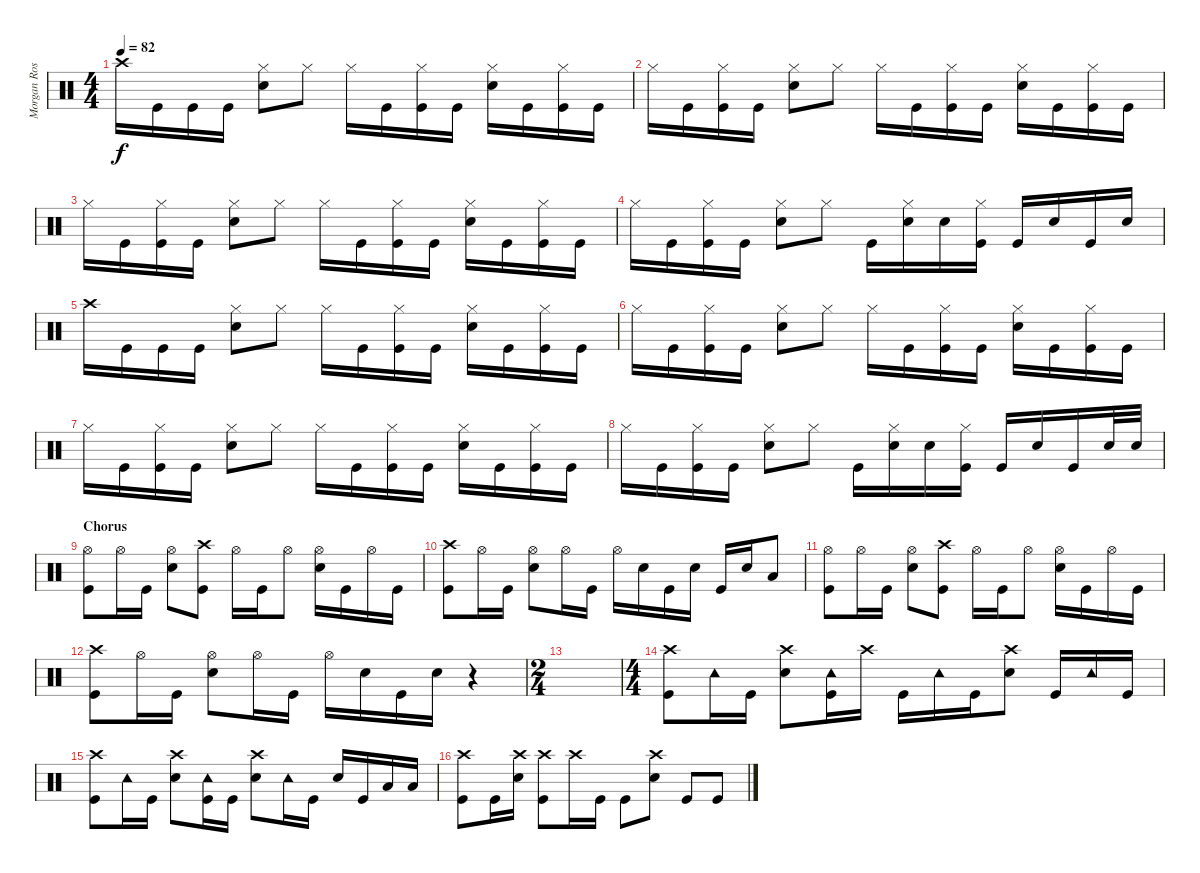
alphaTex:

\track ("Morgan Rose" "Morgan Ros") {instrument percussion}
\staff {score}
\articulation defaults
\ts (4 4)
\tempo 82
\clef neutral
\ks c "Crash high (hit)".16{dy f} "Kick (hit)".16 "Kick (hit)".16 "Kick (hit)".16
("Hi-Hat (closed)" "Snare (hit) 2").8 "Hi-Hat (closed)".8 "Hi-Hat (closed)".16 "Kick (hit)".16 ("Hi-Hat (closed)" "Kick (hit)").16 "Kick (hit)".16 ("Hi-Hat (closed)" "Snare (hit) 2").16 "Kick (hit)".16 ("Hi-Hat (closed)" "Kick (hit)").16 "Kick (hit)".16 |
"Hi-Hat (closed)".16 "Kick (hit)".16 ("Hi-Hat (closed)" "Kick (hit)").16 "Kick (hit)".16 ("Hi-Hat (closed)" "Snare (hit) 2").8 "Hi-Hat (closed)".8 "Hi-Hat (closed)".16 "Kick (hit)".16 ("Hi-Hat (closed)" "Kick (hit)").16 "Kick (hit)".16 ("Hi-Hat (closed)" "Snare (hit) 2").16 "Kick (hit)".16 ("Hi-Hat (closed)" "Kick (hit)").16 "Kick (hit)".16 |
"Hi-Hat (closed)".16 "Kick (hit)".16 ("Hi-Hat (closed)" "Kick (hit)").16 "Kick (hit)".16 ("Hi-Hat (closed)" "Snare (hit) 2").8 "Hi-Hat (closed)".8 "Hi-Hat (closed)".16 "Kick (hit)".16 ("Hi-Hat (closed)" "Kick (hit)").16 "Kick (hit)".16 ("Hi-Hat (closed)" "Snare (hit) 2").16 "Kick (hit)".16 ("Hi-Hat (closed)" "Kick (hit)").16 "Kick (hit)".16 |
"Hi-Hat (closed)".16 "Kick (hit)".16 ("Hi-Hat (closed)" "Kick (hit)").16 "Kick (hit)".16 ("Hi-Hat (closed)" "Snare (hit) 2").8 "Hi-Hat (closed)".8 "Kick (hit)".16 ("Hi-Hat (closed)" "Snare (hit) 2").16 "Snare (hit) 2".16 ("Hi-Hat (closed)" "Kick (hit)").16 "Kick (hit)".16 "Snare (hit) 2".16 "Kick (hit)".16 "Snare (hit) 2".16 |
"Crash high (hit)".16 "Kick (hit)".16 "Kick (hit)".16 "Kick (hit)".16 ("Hi-Hat (closed)" "Snare (hit) 2").8 "Hi-Hat (closed)".8 "Hi-Hat (closed)".16 "Kick (hit)".16 ("Hi-Hat (closed)" "Kick (hit)").16 "Kick (hit)".16 ("Hi-Hat (closed)" "Snare (hit) 2").16 "Kick (hit)".16 ("Hi-Hat (closed)" "Kick (hit)").16 "Kick (hit)".16 |
"Hi-Hat (closed)".16 "Kick (hit)".16 ("Hi-Hat (closed)" "Kick (hit)").16 "Kick (hit)".16 ("Hi-Hat (closed)" "Snare (hit) 2").8 "Hi-Hat (closed)".8 "Hi-Hat (closed)".16 "Kick (hit)".16 ("Hi-Hat (closed)" "Kick (hit)").16 "Kick (hit)".16 ("Hi-Hat (closed)" "Snare (hit) 2").16 "Kick (hit)".16 ("Hi-Hat (closed)" "Kick (hit)").16 "Kick (hit)".16 |
"Hi-Hat (closed)".16 "Kick (hit)".16 ("Hi-Hat (closed)" "Kick (hit)").16 "Kick (hit)".16 ("Hi-Hat (closed)" "Snare (hit) 2").8 "Hi-Hat (closed)".8 "Hi-Hat (closed)".16 "Kick (hit)".16 ("Hi-Hat (closed)" "Kick (hit)").16 "Kick (hit)".16 ("Hi-Hat (closed)" "Snare (hit) 2").16 "Kick (hit)".16 ("Hi-Hat (closed)" "Kick (hit)").16 "Kick (hit)".16 |
"Hi-Hat (closed)".16 "Kick (hit)".16 ("Hi-Hat (closed)" "Kick (hit)").16 "Kick (hit)".16 ("Hi-Hat (closed)" "Snare (hit) 2").8 "Hi-Hat (closed)".8 "Kick (hit)".16 ("Hi-Hat (closed)" "Snare (hit) 2").16 "Snare (hit) 2".16 ("Hi-Hat (closed)" "Kick (hit)").16 "Kick (hit)".16 "Snare (hit) 2".16 "Kick (hit)".16 "Snare (hit) 2".32 "Snare (hit) 2".32 |
\section ("" "Chorus")
("Hi-Hat (open)" "Kick (hit)").8 "Hi-Hat (open)".16 "Kick (hit)".16 ("Hi-Hat (open)" "Snare (hit) 2").8 ("Crash high (hit)" "Kick (hit)").8 "Hi-Hat (open)".16 "Kick (hit)".16 "Hi-Hat (open)".8 ("Hi-Hat (open)" "Snare (hit) 2").16 "Kick (hit)".16 "Hi-Hat (open)".16 "Kick (hit)".16 |
("Crash high (hit)" "Kick (hit)").8 "Hi-Hat (open)".16 "Kick (hit)".16 ("Hi-Hat (open)" "Snare (hit) 2").8 "Hi-Hat (open)".16 "Kick (hit)".16 "Hi-Hat (open)".16 "Snare (hit) 2".16 "Kick (hit)".16 "Snare (hit) 2".16 "Kick (hit)".16 "Snare (hit) 2".16 "Low Tom (hit)".8 |
("Hi-Hat (open)" "Kick (hit)").8 "Hi-Hat (open)".16 "Kick (hit)".16 ("Hi-Hat (open)" "Snare (hit) 2").8 ("Crash high (hit)" "Kick (hit)").8 "Hi-Hat (open)".16 "Kick (hit)".16 "Hi-Hat (open)".8 ("Hi-Hat (open)" "Snare (hit) 2").16 "Kick (hit)".16 "Hi-Hat (open)".16 "Kick (hit)".16 |
("Crash high (hit)" "Kick (hit)").8 "Hi-Hat (open)".16 "Kick (hit)".16 ("Hi-Hat (open)" "Snare (hit) 2").8 "Hi-Hat (open)".16 "Kick (hit)".16 "Hi-Hat (open)".16 "Snare (hit) 2".16 "Kick (hit)".16 "Snare (hit) 2".16 r.4 |
\ts (2 4)
|
\ts (4 4)
("Crash high (hit)" "Kick (hit)").8 "Tambourine (hit)".16 "Kick (hit)".16 ("Crash high (hit)" "Snare (hit) 2").8 ("Tambourine (hit)" "Kick (hit)").16 "Crash high (hit)".16 "Kick (hit)".16 "Tambourine (hit)".16 "Kick (hit)".16 ("Crash high (hit)" "Snare (hit) 2").8 "Kick (hit)".16 "Tambourine (hit)".16 "Kick (hit)".16 |
("Crash high (hit)" "Kick (hit)").8 "Tambourine (hit)".16 "Kick (hit)".16 ("Crash high (hit)" "Snare (hit) 2").8 ("Tambourine (hit)" "Kick (hit)").16 "Kick (hit)".16 ("Crash high (hit)" "Snare (hit) 2").8 "Tambourine (hit)".16 "Kick (hit)".16 "Snare (hit) 2".16 "Kick (hit)".16 "Low Tom (hit)".16 "Low Tom (hit)".16 |
("Crash high (hit)" "Kick (hit)").8 "Kick (hit)".16 ("Crash high (hit)" "Snare (hit) 2").16 ("Crash high (hit)" "Kick (hit)").8 "Crash high (hit)".16 "Kick (hit)".16 "Kick (hit)".8 ("Crash high (hit)" "Snare (hit) 2").8 "Kick (hit)".8 "Kick (hit)".8
